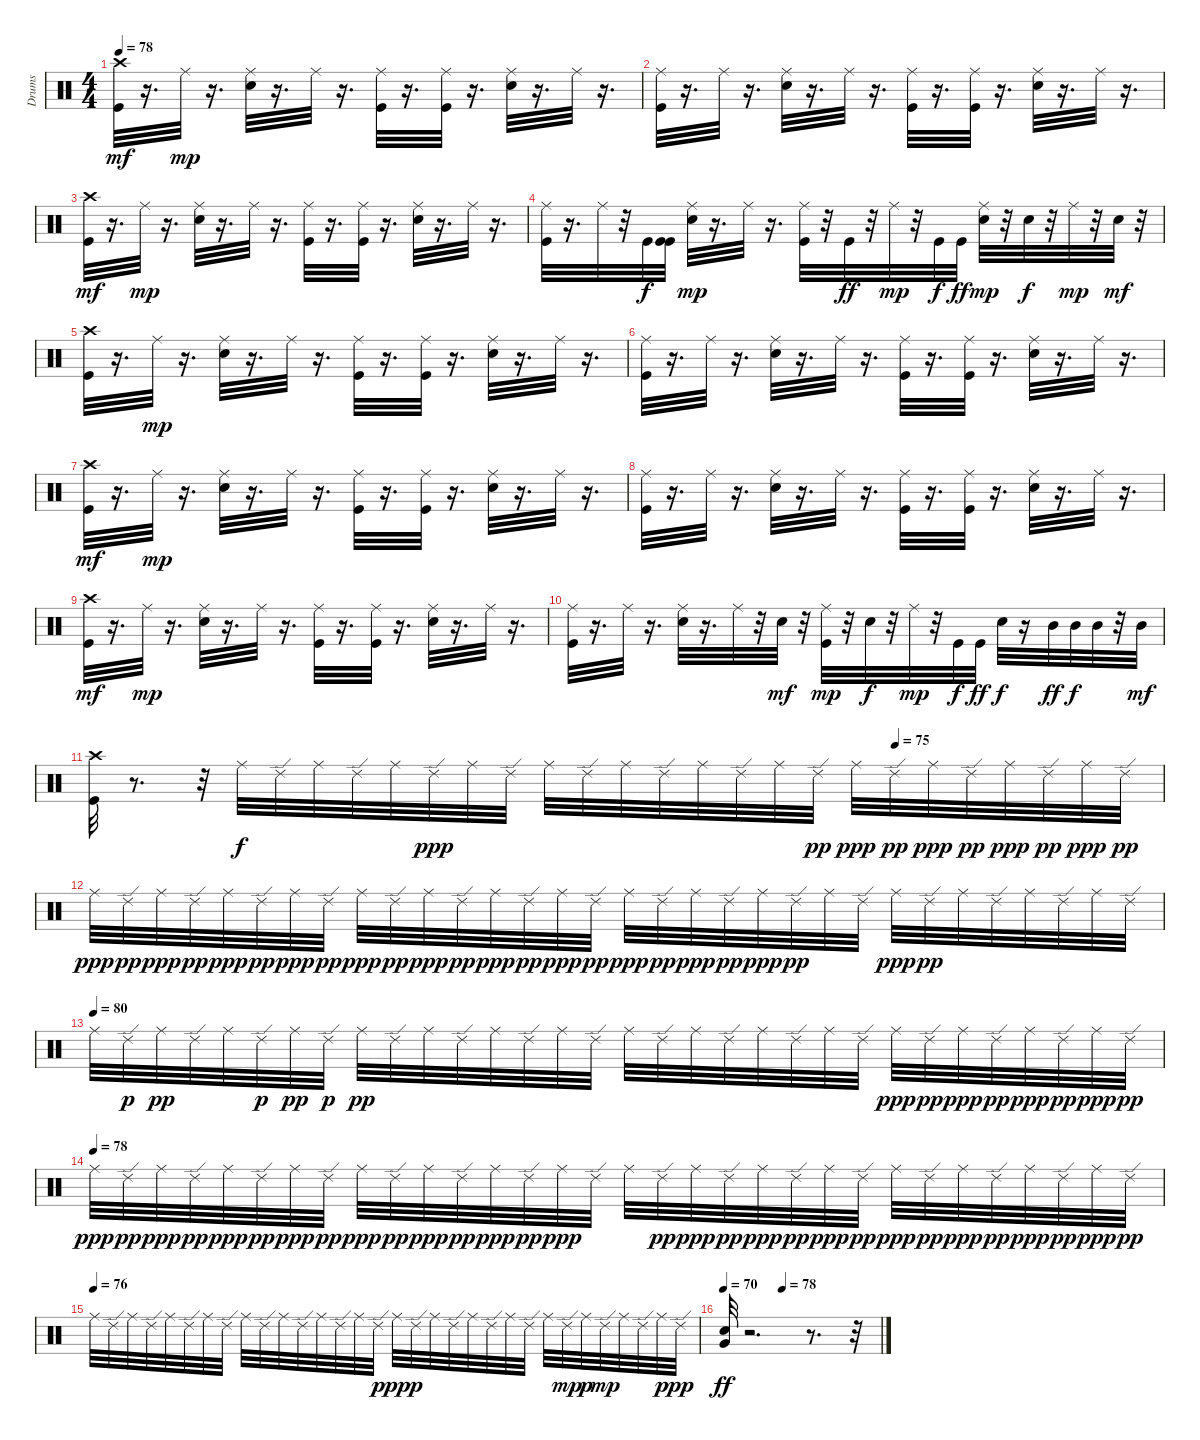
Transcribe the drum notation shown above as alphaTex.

\track ("Drums" "Drums") {instrument percussion}
\staff {score}
\articulation defaults
\ts (4 4)
\tempo 78
\clef neutral
\ks c
("Kick (hit)" "Crash high (hit)").32{dy mf} r.16{d} "Ride (middle)".32{dy mp} r.16{d} ("Snare (hit) 2" "Ride (middle)").32 r.16{d} "Ride (middle)".32 r.16{d} ("Kick (hit)" "Ride (middle)").32 r.16{d} ("Kick (hit)" "Ride (middle)").32 r.16{d} ("Snare (hit) 2" "Ride (middle)").32 r.16{d} "Ride (middle)".32 r.16{d} |
("Kick (hit)" "Ride (middle)").32 r.16{d} "Ride (middle)".32 r.16{d} ("Snare (hit) 2" "Ride (middle)").32 r.16{d} "Ride (middle)".32 r.16{d} ("Kick (hit)" "Ride (middle)").32 r.16{d} ("Kick (hit)" "Ride (middle)").32 r.16{d} ("Snare (hit) 2" "Ride (middle)").32 r.16{d} "Ride (middle)".32 r.16{d} |
("Kick (hit)" "Crash high (hit)").32{dy mf} r.16{d} "Ride (middle)".32{dy mp} r.16{d} ("Snare (hit) 2" "Ride (middle)").32 r.16{d} "Ride (middle)".32 r.16{d} ("Kick (hit)" "Ride (middle)").32 r.16{d} ("Kick (hit)" "Ride (middle)").32 r.16{d} ("Snare (hit) 2" "Ride (middle)").32 r.16{d} "Ride (middle)".32 r.16{d} |
("Kick (hit)" "Ride (middle)").32 r.16{d} "Ride (middle)".32 r.32 "Kick (hit)".32{dy f} ("Kick (hit)" "Kick (hit)").32 ("Snare (hit) 2" "Ride (middle)").32{dy mp} r.16{d} "Ride (middle)".32 r.16{d} ("Kick (hit)" "Ride (middle)").32 r.32 "Kick (hit)".32{dy ff} r.32 "Ride (middle)".32{dy mp} r.32 "Kick (hit)".32{dy f} "Kick (hit)".32{dy ff} ("Snare (hit) 2" "Ride (middle)").32{dy mp} r.32 "Snare (hit) 2".32{dy f} r.32 "Ride (middle)".32{dy mp} r.32 "Snare (hit) 2".32{dy mf} r.32 |
("Kick (hit)" "Crash high (hit)").32 r.16{d} "Ride (middle)".32{dy mp} r.16{d} ("Snare (hit) 2" "Ride (middle)").32 r.16{d} "Ride (middle)".32 r.16{d} ("Kick (hit)" "Ride (middle)").32 r.16{d} ("Kick (hit)" "Ride (middle)").32 r.16{d} ("Snare (hit) 2" "Ride (middle)").32 r.16{d} "Ride (middle)".32 r.16{d} |
("Kick (hit)" "Ride (middle)").32 r.16{d} "Ride (middle)".32 r.16{d} ("Snare (hit) 2" "Ride (middle)").32 r.16{d} "Ride (middle)".32 r.16{d} ("Kick (hit)" "Ride (middle)").32 r.16{d} ("Kick (hit)" "Ride (middle)").32 r.16{d} ("Snare (hit) 2" "Ride (middle)").32 r.16{d} "Ride (middle)".32 r.16{d} |
("Kick (hit)" "Crash high (hit)").32{dy mf} r.16{d} "Ride (middle)".32{dy mp} r.16{d} ("Snare (hit) 2" "Ride (middle)").32 r.16{d} "Ride (middle)".32 r.16{d} ("Kick (hit)" "Ride (middle)").32 r.16{d} ("Kick (hit)" "Ride (middle)").32 r.16{d} ("Snare (hit) 2" "Ride (middle)").32 r.16{d} "Ride (middle)".32 r.16{d} |
("Kick (hit)" "Ride (middle)").32 r.16{d} "Ride (middle)".32 r.16{d} ("Snare (hit) 2" "Ride (middle)").32 r.16{d} "Ride (middle)".32 r.16{d} ("Kick (hit)" "Ride (middle)").32 r.16{d} ("Kick (hit)" "Ride (middle)").32 r.16{d} ("Snare (hit) 2" "Ride (middle)").32 r.16{d} "Ride (middle)".32 r.16{d} |
("Kick (hit)" "Crash high (hit)").32{dy mf} r.16{d} "Ride (middle)".32{dy mp} r.16{d} ("Snare (hit) 2" "Ride (middle)").32 r.16{d} "Ride (middle)".32 r.16{d} ("Kick (hit)" "Ride (middle)").32 r.16{d} ("Kick (hit)" "Ride (middle)").32 r.16{d} ("Snare (hit) 2" "Ride (middle)").32 r.16{d} "Ride (middle)".32 r.16{d} |
("Kick (hit)" "Ride (middle)").32 r.16{d} "Ride (middle)".32 r.16{d} ("Snare (hit) 2" "Ride (middle)").32 r.16{d} "Ride (middle)".32 r.32 "Snare (hit) 2".32{dy mf} r.32 ("Kick (hit)" "Ride (middle)").32{dy mp} r.32 "Snare (hit) 2".32{dy f} r.32 "Ride (middle)".32{dy mp} r.32 "Kick (hit)".32{dy f} "Kick (hit)".32{dy ff} "Snare (hit) 2".32{dy f} r.16 "Mid Tom (hit)".32{dy ff} "Mid Tom (hit)".32{dy f} "Mid Tom (hit)".32 r.32 "Mid Tom (hit)".32{dy mf} |
\tempo (75 0.75)
("Kick (hit)" "Crash high (hit)").32 r.8{d} r.32 "Ride (middle)".32{dy f} "Ride (edge) 2".32 "Ride (middle)".32 "Ride (edge) 2".32 "Ride (middle)".32 "Ride (edge) 2".32{dy ppp} "Ride (middle)".32 "Ride (edge) 2".32 "Ride (middle)".32 "Ride (edge) 2".32 "Ride (middle)".32 "Ride (edge) 2".32 "Ride (middle)".32 "Ride (edge) 2".32 "Ride (middle)".32 "Ride (edge) 2".32{dy pp} "Ride (middle)".32{dy ppp} "Ride (edge) 2".32{dy pp} "Ride (middle)".32{dy ppp} "Ride (edge) 2".32{dy pp} "Ride (middle)".32{dy ppp} "Ride (edge) 2".32{dy pp} "Ride (middle)".32{dy ppp} "Ride (edge) 2".32{dy pp} |
"Ride (middle)".32{dy ppp} "Ride (edge) 2".32{dy pp} "Ride (middle)".32{dy ppp} "Ride (edge) 2".32{dy pp} "Ride (middle)".32{dy ppp} "Ride (edge) 2".32{dy pp} "Ride (middle)".32{dy ppp} "Ride (edge) 2".32{dy pp} "Ride (middle)".32{dy ppp} "Ride (edge) 2".32{dy pp} "Ride (middle)".32{dy ppp} "Ride (edge) 2".32{dy pp} "Ride (middle)".32{dy ppp} "Ride (edge) 2".32{dy pp} "Ride (middle)".32{dy ppp} "Ride (edge) 2".32{dy pp} "Ride (middle)".32{dy ppp} "Ride (edge) 2".32{dy pp} "Ride (middle)".32{dy ppp} "Ride (edge) 2".32{dy pp} "Ride (middle)".32{dy ppp} "Ride (edge) 2".32{dy pp} "Ride (middle)".32 "Ride (edge) 2".32 "Ride (middle)".32{dy ppp} "Ride (edge) 2".32{dy pp} "Ride (middle)".32 "Ride (edge) 2".32 "Ride (middle)".32 "Ride (edge) 2".32 "Ride (middle)".32 "Ride (edge) 2".32 |
\tempo (80)
"Ride (middle)".32 "Ride (edge) 2".32{dy p} "Ride (middle)".32{dy pp} "Ride (edge) 2".32 "Ride (middle)".32 "Ride (edge) 2".32{dy p} "Ride (middle)".32{dy pp} "Ride (edge) 2".32{dy p} "Ride (middle)".32{dy pp} "Ride (edge) 2".32 "Ride (middle)".32 "Ride (edge) 2".32 "Ride (middle)".32 "Ride (edge) 2".32 "Ride (middle)".32 "Ride (edge) 2".32 "Ride (middle)".32 "Ride (edge) 2".32 "Ride (middle)".32 "Ride (edge) 2".32 "Ride (middle)".32 "Ride (edge) 2".32 "Ride (middle)".32 "Ride (edge) 2".32 "Ride (middle)".32{dy ppp} "Ride (edge) 2".32{dy pp} "Ride (middle)".32{dy ppp} "Ride (edge) 2".32{dy pp} "Ride (middle)".32{dy ppp} "Ride (edge) 2".32{dy pp} "Ride (middle)".32{dy ppp} "Ride (edge) 2".32{dy pp} |
\tempo (78)
"Ride (middle)".32{dy ppp} "Ride (edge) 2".32{dy pp} "Ride (middle)".32{dy ppp} "Ride (edge) 2".32{dy pp} "Ride (middle)".32{dy ppp} "Ride (edge) 2".32{dy pp} "Ride (middle)".32{dy ppp} "Ride (edge) 2".32{dy pp} "Ride (middle)".32{dy ppp} "Ride (edge) 2".32{dy pp} "Ride (middle)".32{dy ppp} "Ride (edge) 2".32{dy pp} "Ride (middle)".32{dy ppp} "Ride (edge) 2".32{dy pp} "Ride (middle)".32{dy ppp} "Ride (edge) 2".32 "Ride (middle)".32 "Ride (edge) 2".32{dy pp} "Ride (middle)".32{dy ppp} "Ride (edge) 2".32{dy pp} "Ride (middle)".32{dy ppp} "Ride (edge) 2".32{dy pp} "Ride (middle)".32{dy ppp} "Ride (edge) 2".32{dy pp} "Ride (middle)".32{dy ppp} "Ride (edge) 2".32{dy pp} "Ride (middle)".32{dy ppp} "Ride (edge) 2".32{dy pp} "Ride (middle)".32{dy ppp} "Ride (edge) 2".32{dy pp} "Ride (middle)".32{dy ppp} "Ride (edge) 2".32{dy pp} |
\tempo (76)
"Ride (middle)".32 "Ride (edge) 2".32 "Ride (middle)".32 "Ride (edge) 2".32 "Ride (middle)".32 "Ride (edge) 2".32 "Ride (middle)".32 "Ride (edge) 2".32 "Ride (middle)".32 "Ride (edge) 2".32 "Ride (middle)".32 "Ride (edge) 2".32 "Ride (middle)".32 "Ride (edge) 2".32 "Ride (middle)".32 "Ride (edge) 2".32{dy p} "Ride (middle)".32{dy pp} "Ride (edge) 2".32{dy p} "Ride (middle)".32 "Ride (edge) 2".32 "Ride (middle)".32 "Ride (edge) 2".32 "Ride (middle)".32 "Ride (edge) 2".32 "Ride (middle)".32 "Ride (edge) 2".32{dy mp} "Ride (middle)".32{dy p} "Ride (edge) 2".32{dy mp} "Ride (middle)".32 "Ride (edge) 2".32 "Ride (middle)".32{dy p} "Ride (edge) 2".32{dy pp} |
\tempo 70
\tempo (78 0.375)
("Very Low Tom (hit)" "Snare (hit) 2").32{dy ff} r.2{d} r.8{d} r.32
